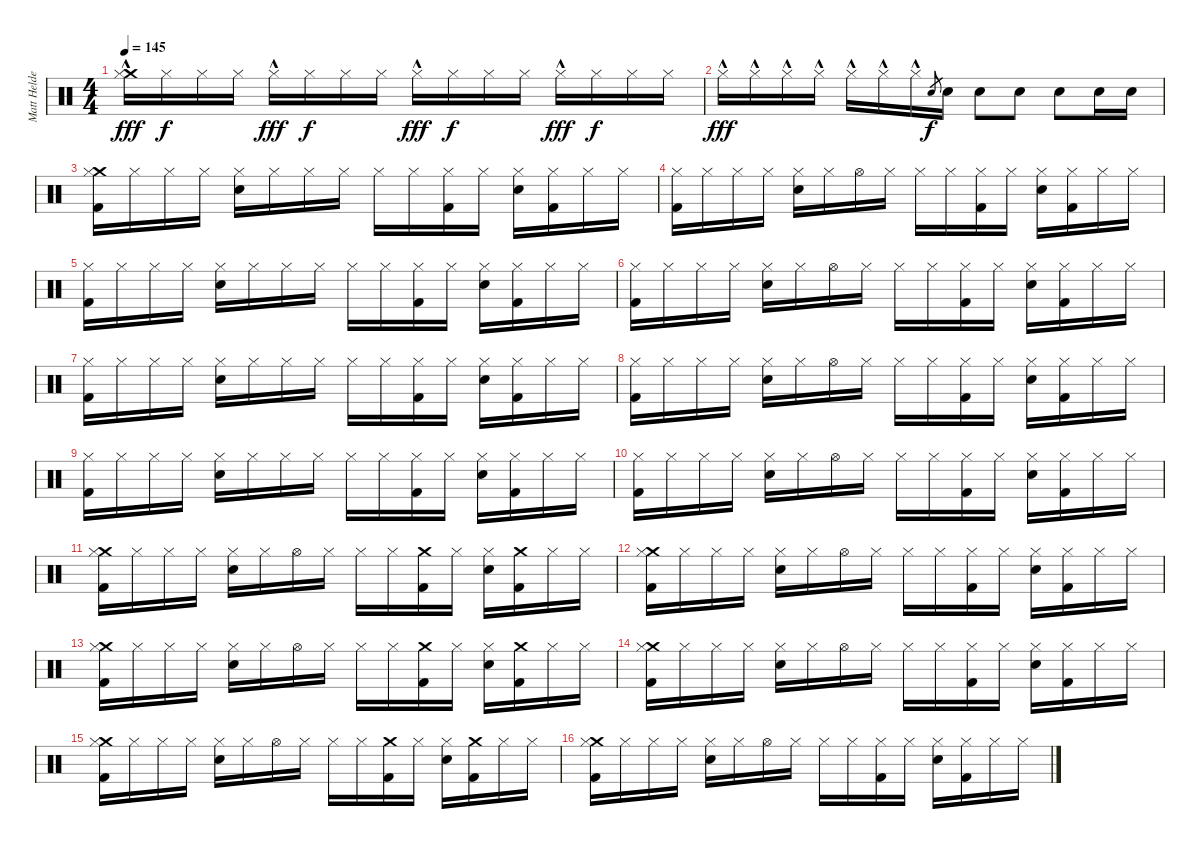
\track ("Matt Helders" "Matt Helde") {instrument percussion}
\staff {score}
\articulation defaults
\ts (4 4)
\tempo 145
\clef neutral
\ks c
("Crash medium (hit)" "Hi-Hat (closed)"{hac}).16{dy fff} "Hi-Hat (closed)".16{dy f} "Hi-Hat (closed)".16 "Hi-Hat (closed)".16 "Hi-Hat (closed)"{hac}.16{dy fff} "Hi-Hat (closed)".16{dy f} "Hi-Hat (closed)".16 "Hi-Hat (closed)".16 "Hi-Hat (closed)"{hac}.16{dy fff} "Hi-Hat (closed)".16{dy f} "Hi-Hat (closed)".16 "Hi-Hat (closed)".16 "Hi-Hat (closed)"{hac}.16{dy fff} "Hi-Hat (closed)".16{dy f} "Hi-Hat (closed)".16 "Hi-Hat (closed)".16 |
"Hi-Hat (closed)"{hac}.16{dy fff} "Hi-Hat (closed)"{hac}.16 "Hi-Hat (closed)"{hac}.16 "Hi-Hat (closed)"{hac}.16 "Hi-Hat (closed)"{hac}.16 "Hi-Hat (closed)"{hac}.16 "Hi-Hat (closed)"{hac}.16 "Snare (hit) 2".8{gr dy f} "Snare (hit) 2".16 "Snare (hit) 2".8 "Snare (hit) 2".8 "Snare (hit) 2".8 "Snare (hit) 2".16 "Snare (hit) 2".16 |
("Crash medium (hit)" "Hi-Hat (closed)" "Kick (hit) 2").16 "Hi-Hat (closed)".16 "Hi-Hat (closed)".16 "Hi-Hat (closed)".16 ("Hi-Hat (closed)" "Snare (hit) 2").16 "Hi-Hat (closed)".16 "Hi-Hat (closed)".16 "Hi-Hat (closed)".16 "Hi-Hat (closed)".16 "Hi-Hat (closed)".16 ("Hi-Hat (closed)" "Kick (hit) 2").16 "Hi-Hat (closed)".16 ("Hi-Hat (closed)" "Snare (hit) 2").16 ("Hi-Hat (closed)" "Kick (hit) 2").16 "Hi-Hat (closed)".16 "Hi-Hat (closed)".16 |
("Hi-Hat (closed)" "Kick (hit) 2").16 "Hi-Hat (closed)".16 "Hi-Hat (closed)".16 "Hi-Hat (closed)".16 ("Hi-Hat (closed)" "Snare (hit) 2").16 "Hi-Hat (closed)".16 "Hi-Hat (open)".16 "Hi-Hat (closed)".16 "Hi-Hat (closed)".16 "Hi-Hat (closed)".16 ("Hi-Hat (closed)" "Kick (hit) 2").16 "Hi-Hat (closed)".16 ("Hi-Hat (closed)" "Snare (hit) 2").16 ("Hi-Hat (closed)" "Kick (hit) 2").16 "Hi-Hat (closed)".16 "Hi-Hat (closed)".16 |
("Hi-Hat (closed)" "Kick (hit) 2").16 "Hi-Hat (closed)".16 "Hi-Hat (closed)".16 "Hi-Hat (closed)".16 ("Hi-Hat (closed)" "Snare (hit) 2").16 "Hi-Hat (closed)".16 "Hi-Hat (closed)".16 "Hi-Hat (closed)".16 "Hi-Hat (closed)".16 "Hi-Hat (closed)".16 ("Hi-Hat (closed)" "Kick (hit) 2").16 "Hi-Hat (closed)".16 ("Hi-Hat (closed)" "Snare (hit) 2").16 ("Hi-Hat (closed)" "Kick (hit) 2").16 "Hi-Hat (closed)".16 "Hi-Hat (closed)".16 |
("Hi-Hat (closed)" "Kick (hit) 2").16 "Hi-Hat (closed)".16 "Hi-Hat (closed)".16 "Hi-Hat (closed)".16 ("Hi-Hat (closed)" "Snare (hit) 2").16 "Hi-Hat (closed)".16 "Hi-Hat (open)".16 "Hi-Hat (closed)".16 "Hi-Hat (closed)".16 "Hi-Hat (closed)".16 ("Hi-Hat (closed)" "Kick (hit) 2").16 "Hi-Hat (closed)".16 ("Hi-Hat (closed)" "Snare (hit) 2").16 ("Hi-Hat (closed)" "Kick (hit) 2").16 "Hi-Hat (closed)".16 "Hi-Hat (closed)".16 |
("Hi-Hat (closed)" "Kick (hit) 2").16 "Hi-Hat (closed)".16 "Hi-Hat (closed)".16 "Hi-Hat (closed)".16 ("Hi-Hat (closed)" "Snare (hit) 2").16 "Hi-Hat (closed)".16 "Hi-Hat (closed)".16 "Hi-Hat (closed)".16 "Hi-Hat (closed)".16 "Hi-Hat (closed)".16 ("Hi-Hat (closed)" "Kick (hit) 2").16 "Hi-Hat (closed)".16 ("Hi-Hat (closed)" "Snare (hit) 2").16 ("Hi-Hat (closed)" "Kick (hit) 2").16 "Hi-Hat (closed)".16 "Hi-Hat (closed)".16 |
("Hi-Hat (closed)" "Kick (hit) 2").16 "Hi-Hat (closed)".16 "Hi-Hat (closed)".16 "Hi-Hat (closed)".16 ("Hi-Hat (closed)" "Snare (hit) 2").16 "Hi-Hat (closed)".16 "Hi-Hat (open)".16 "Hi-Hat (closed)".16 "Hi-Hat (closed)".16 "Hi-Hat (closed)".16 ("Hi-Hat (closed)" "Kick (hit) 2").16 "Hi-Hat (closed)".16 ("Hi-Hat (closed)" "Snare (hit) 2").16 ("Hi-Hat (closed)" "Kick (hit) 2").16 "Hi-Hat (closed)".16 "Hi-Hat (closed)".16 |
("Hi-Hat (closed)" "Kick (hit) 2").16 "Hi-Hat (closed)".16 "Hi-Hat (closed)".16 "Hi-Hat (closed)".16 ("Hi-Hat (closed)" "Snare (hit) 2").16 "Hi-Hat (closed)".16 "Hi-Hat (closed)".16 "Hi-Hat (closed)".16 "Hi-Hat (closed)".16 "Hi-Hat (closed)".16 ("Hi-Hat (closed)" "Kick (hit) 2").16 "Hi-Hat (closed)".16 ("Hi-Hat (closed)" "Snare (hit) 2").16 ("Hi-Hat (closed)" "Kick (hit) 2").16 "Hi-Hat (closed)".16 "Hi-Hat (closed)".16 |
("Hi-Hat (closed)" "Kick (hit) 2").16 "Hi-Hat (closed)".16 "Hi-Hat (closed)".16 "Hi-Hat (closed)".16 ("Hi-Hat (closed)" "Snare (hit) 2").16 "Hi-Hat (closed)".16 "Hi-Hat (open)".16 "Hi-Hat (closed)".16 "Hi-Hat (closed)".16 "Hi-Hat (closed)".16 ("Hi-Hat (closed)" "Kick (hit) 2").16 "Hi-Hat (closed)".16 ("Hi-Hat (closed)" "Snare (hit) 2").16 ("Hi-Hat (closed)" "Kick (hit) 2").16 "Hi-Hat (closed)".16 "Hi-Hat (closed)".16 |
("Crash medium (hit)" "Hi-Hat (closed)" "Kick (hit) 2").16 "Hi-Hat (closed)".16 "Hi-Hat (closed)".16 "Hi-Hat (closed)".16 ("Hi-Hat (closed)" "Snare (hit) 2").16 "Hi-Hat (closed)".16 "Hi-Hat (open)".16 "Hi-Hat (closed)".16 "Hi-Hat (closed)".16 "Hi-Hat (closed)".16 ("Crash medium (hit)" "Kick (hit) 2").16 "Hi-Hat (closed)".16 ("Hi-Hat (closed)" "Snare (hit) 2").16 ("Crash medium (hit)" "Kick (hit) 2").16 "Hi-Hat (closed)".16 "Hi-Hat (closed)".16 |
("Crash medium (hit)" "Hi-Hat (closed)" "Kick (hit) 2").16 "Hi-Hat (closed)".16 "Hi-Hat (closed)".16 "Hi-Hat (closed)".16 ("Hi-Hat (closed)" "Snare (hit) 2").16 "Hi-Hat (closed)".16 "Hi-Hat (open)".16 "Hi-Hat (closed)".16 "Hi-Hat (closed)".16 "Hi-Hat (closed)".16 ("Hi-Hat (closed)" "Kick (hit) 2").16 "Hi-Hat (closed)".16 ("Hi-Hat (closed)" "Snare (hit) 2").16 ("Hi-Hat (closed)" "Kick (hit) 2").16 "Hi-Hat (closed)".16 "Hi-Hat (closed)".16 |
("Crash medium (hit)" "Hi-Hat (closed)" "Kick (hit) 2").16 "Hi-Hat (closed)".16 "Hi-Hat (closed)".16 "Hi-Hat (closed)".16 ("Hi-Hat (closed)" "Snare (hit) 2").16 "Hi-Hat (closed)".16 "Hi-Hat (open)".16 "Hi-Hat (closed)".16 "Hi-Hat (closed)".16 "Hi-Hat (closed)".16 ("Crash medium (hit)" "Kick (hit) 2").16 "Hi-Hat (closed)".16 ("Hi-Hat (closed)" "Snare (hit) 2").16 ("Crash medium (hit)" "Kick (hit) 2").16 "Hi-Hat (closed)".16 "Hi-Hat (closed)".16 |
("Crash medium (hit)" "Hi-Hat (closed)" "Kick (hit) 2").16 "Hi-Hat (closed)".16 "Hi-Hat (closed)".16 "Hi-Hat (closed)".16 ("Hi-Hat (closed)" "Snare (hit) 2").16 "Hi-Hat (closed)".16 "Hi-Hat (open)".16 "Hi-Hat (closed)".16 "Hi-Hat (closed)".16 "Hi-Hat (closed)".16 ("Hi-Hat (closed)" "Kick (hit) 2").16 "Hi-Hat (closed)".16 ("Hi-Hat (closed)" "Snare (hit) 2").16 ("Hi-Hat (closed)" "Kick (hit) 2").16 "Hi-Hat (closed)".16 "Hi-Hat (closed)".16 |
("Crash medium (hit)" "Hi-Hat (closed)" "Kick (hit) 2").16 "Hi-Hat (closed)".16 "Hi-Hat (closed)".16 "Hi-Hat (closed)".16 ("Hi-Hat (closed)" "Snare (hit) 2").16 "Hi-Hat (closed)".16 "Hi-Hat (open)".16 "Hi-Hat (closed)".16 "Hi-Hat (closed)".16 "Hi-Hat (closed)".16 ("Crash medium (hit)" "Kick (hit) 2").16 "Hi-Hat (closed)".16 ("Hi-Hat (closed)" "Snare (hit) 2").16 ("Crash medium (hit)" "Kick (hit) 2").16 "Hi-Hat (closed)".16 "Hi-Hat (closed)".16 |
("Crash medium (hit)" "Hi-Hat (closed)" "Kick (hit) 2").16 "Hi-Hat (closed)".16 "Hi-Hat (closed)".16 "Hi-Hat (closed)".16 ("Hi-Hat (closed)" "Snare (hit) 2").16 "Hi-Hat (closed)".16 "Hi-Hat (open)".16 "Hi-Hat (closed)".16 "Hi-Hat (closed)".16 "Hi-Hat (closed)".16 ("Hi-Hat (closed)" "Kick (hit) 2").16 "Hi-Hat (closed)".16 ("Hi-Hat (closed)" "Snare (hit) 2").16 ("Hi-Hat (closed)" "Kick (hit) 2").16 "Hi-Hat (closed)".16 "Hi-Hat (closed)".16
